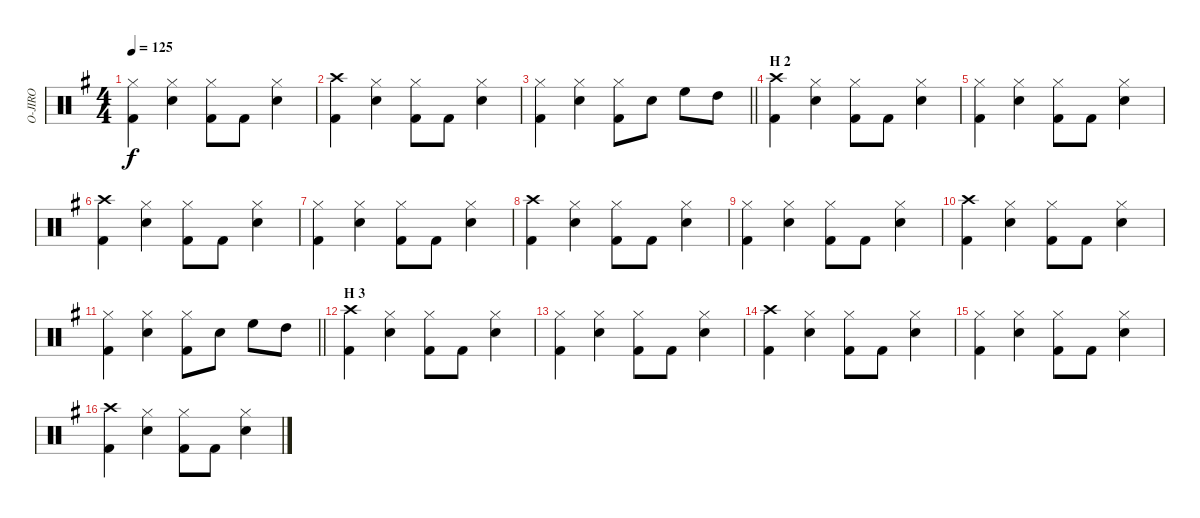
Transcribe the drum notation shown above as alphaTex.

\track ("O-JIRO" "O-JIRO") {instrument percussion}
\staff {score}
\articulation defaults
\ts (4 4)
\tempo 125
\clef neutral
\ks g
("Hi-Hat (closed)" "Kick (hit) 2").4{dy f} ("Hi-Hat (closed)" "Snare (hit) 2").4 ("Hi-Hat (closed)" "Kick (hit) 2").8 "Kick (hit) 2".8 ("Hi-Hat (closed)" "Snare (hit) 2").4 |
("Crash high (hit)" "Kick (hit) 2").4 ("Hi-Hat (closed)" "Snare (hit) 2").4 ("Hi-Hat (closed)" "Kick (hit) 2").8 "Kick (hit) 2".8 ("Hi-Hat (closed)" "Snare (hit) 2").4 |
\barLineRight lightlight
("Hi-Hat (closed)" "Kick (hit) 2").4 ("Hi-Hat (closed)" "Snare (hit) 2").4 ("Hi-Hat (closed)" "Kick (hit) 2").8 "Snare (hit) 2".8 "High Floor Tom (hit)".8 "High Tom (hit)".8 |
\section ("" "H 2")
("Crash high (hit)" "Kick (hit) 2").4 ("Hi-Hat (closed)" "Snare (hit) 2").4 ("Hi-Hat (closed)" "Kick (hit) 2").8 "Kick (hit) 2".8 ("Hi-Hat (closed)" "Snare (hit) 2").4 |
("Hi-Hat (closed)" "Kick (hit) 2").4 ("Hi-Hat (closed)" "Snare (hit) 2").4 ("Hi-Hat (closed)" "Kick (hit) 2").8 "Kick (hit) 2".8 ("Hi-Hat (closed)" "Snare (hit) 2").4 |
("Crash high (hit)" "Kick (hit) 2").4 ("Hi-Hat (closed)" "Snare (hit) 2").4 ("Hi-Hat (closed)" "Kick (hit) 2").8 "Kick (hit) 2".8 ("Hi-Hat (closed)" "Snare (hit) 2").4 |
("Hi-Hat (closed)" "Kick (hit) 2").4 ("Hi-Hat (closed)" "Snare (hit) 2").4 ("Hi-Hat (closed)" "Kick (hit) 2").8 "Kick (hit) 2".8 ("Hi-Hat (closed)" "Snare (hit) 2").4 |
("Crash high (hit)" "Kick (hit) 2").4 ("Hi-Hat (closed)" "Snare (hit) 2").4 ("Hi-Hat (closed)" "Kick (hit) 2").8 "Kick (hit) 2".8 ("Hi-Hat (closed)" "Snare (hit) 2").4 |
("Hi-Hat (closed)" "Kick (hit) 2").4 ("Hi-Hat (closed)" "Snare (hit) 2").4 ("Hi-Hat (closed)" "Kick (hit) 2").8 "Kick (hit) 2".8 ("Hi-Hat (closed)" "Snare (hit) 2").4 |
("Crash high (hit)" "Kick (hit) 2").4 ("Hi-Hat (closed)" "Snare (hit) 2").4 ("Hi-Hat (closed)" "Kick (hit) 2").8 "Kick (hit) 2".8 ("Hi-Hat (closed)" "Snare (hit) 2").4 |
\barLineRight lightlight
("Hi-Hat (closed)" "Kick (hit) 2").4 ("Hi-Hat (closed)" "Snare (hit) 2").4 ("Hi-Hat (closed)" "Kick (hit) 2").8 "Snare (hit) 2".8 "High Floor Tom (hit)".8 "High Tom (hit)".8 |
\section ("" "H 3")
("Crash high (hit)" "Kick (hit) 2").4 ("Hi-Hat (closed)" "Snare (hit) 2").4 ("Hi-Hat (closed)" "Kick (hit) 2").8 "Kick (hit) 2".8 ("Hi-Hat (closed)" "Snare (hit) 2").4 |
("Hi-Hat (closed)" "Kick (hit) 2").4 ("Hi-Hat (closed)" "Snare (hit) 2").4 ("Hi-Hat (closed)" "Kick (hit) 2").8 "Kick (hit) 2".8 ("Hi-Hat (closed)" "Snare (hit) 2").4 |
("Crash high (hit)" "Kick (hit) 2").4 ("Hi-Hat (closed)" "Snare (hit) 2").4 ("Hi-Hat (closed)" "Kick (hit) 2").8 "Kick (hit) 2".8 ("Hi-Hat (closed)" "Snare (hit) 2").4 |
("Hi-Hat (closed)" "Kick (hit) 2").4 ("Hi-Hat (closed)" "Snare (hit) 2").4 ("Hi-Hat (closed)" "Kick (hit) 2").8 "Kick (hit) 2".8 ("Hi-Hat (closed)" "Snare (hit) 2").4 |
("Crash high (hit)" "Kick (hit) 2").4 ("Hi-Hat (closed)" "Snare (hit) 2").4 ("Hi-Hat (closed)" "Kick (hit) 2").8 "Kick (hit) 2".8 ("Hi-Hat (closed)" "Snare (hit) 2").4
